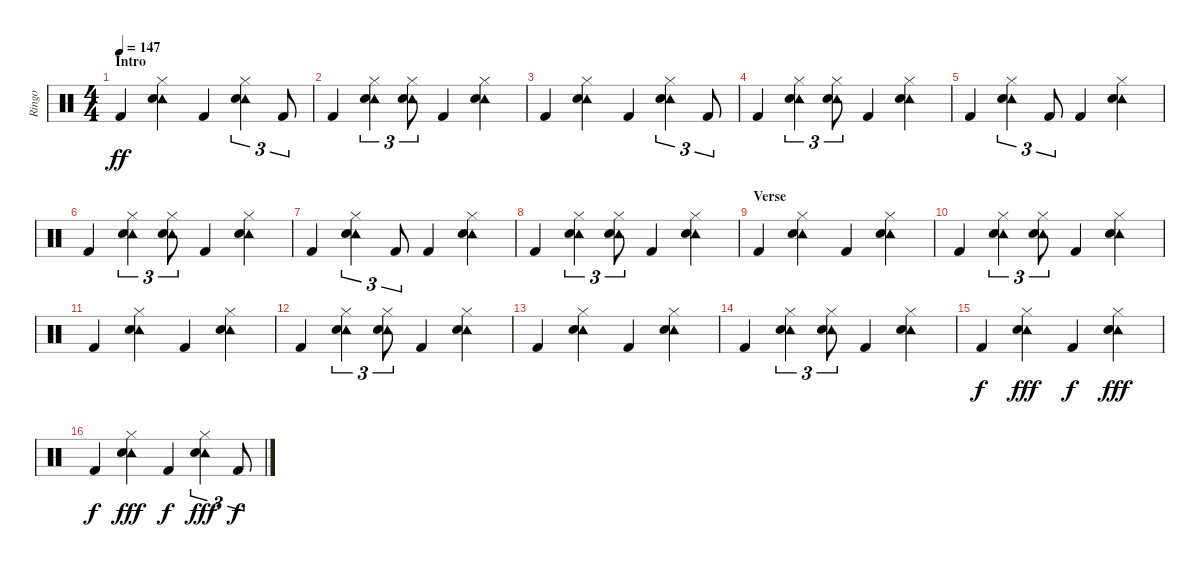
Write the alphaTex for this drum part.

\track ("Ringo" "Ringo") {instrument percussion}
\staff {score}
\articulation defaults
\ts (4 4)
\section ("" "Intro")
\tempo 147
\clef neutral
\ks c "Kick (hit) 2".4{dy ff volume 13}
("Tambourine (hit)" "Hi-Hat (closed)" "Snare (hit) 2").4 "Kick (hit) 2".4 ("Tambourine (hit)" "Hi-Hat (closed)" "Snare (hit) 2").4{tu (3 2)} "Kick (hit) 2".8{tu (3 2)} |
"Kick (hit) 2".4 ("Tambourine (hit)" "Hi-Hat (closed)" "Snare (hit) 2").4{tu (3 2)} ("Tambourine (hit)" "Hi-Hat (closed)" "Snare (hit) 2").8{tu (3 2)} "Kick (hit) 2".4 ("Tambourine (hit)" "Hi-Hat (closed)" "Snare (hit) 2").4 |
"Kick (hit) 2".4 ("Tambourine (hit)" "Hi-Hat (closed)" "Snare (hit) 2").4 "Kick (hit) 2".4 ("Tambourine (hit)" "Hi-Hat (closed)" "Snare (hit) 2").4{tu (3 2)} "Kick (hit) 2".8{tu (3 2)} |
"Kick (hit) 2".4 ("Tambourine (hit)" "Hi-Hat (closed)" "Snare (hit) 2").4{tu (3 2)} ("Tambourine (hit)" "Hi-Hat (closed)" "Snare (hit) 2").8{tu (3 2)} "Kick (hit) 2".4 ("Tambourine (hit)" "Hi-Hat (closed)" "Snare (hit) 2").4 |
"Kick (hit) 2".4 ("Tambourine (hit)" "Hi-Hat (closed)" "Snare (hit) 2").4{tu (3 2)} "Kick (hit) 2".8{tu (3 2)} "Kick (hit) 2".4 ("Tambourine (hit)" "Hi-Hat (closed)" "Snare (hit) 2").4 |
"Kick (hit) 2".4 ("Tambourine (hit)" "Hi-Hat (closed)" "Snare (hit) 2").4{tu (3 2)} ("Tambourine (hit)" "Hi-Hat (closed)" "Snare (hit) 2").8{tu (3 2)} "Kick (hit) 2".4 ("Tambourine (hit)" "Hi-Hat (closed)" "Snare (hit) 2").4 |
"Kick (hit) 2".4 ("Tambourine (hit)" "Hi-Hat (closed)" "Snare (hit) 2").4{tu (3 2)} "Kick (hit) 2".8{tu (3 2)} "Kick (hit) 2".4 ("Tambourine (hit)" "Hi-Hat (closed)" "Snare (hit) 2").4 |
"Kick (hit) 2".4 ("Tambourine (hit)" "Hi-Hat (closed)" "Snare (hit) 2").4{tu (3 2)} ("Tambourine (hit)" "Hi-Hat (closed)" "Snare (hit) 2").8{tu (3 2)} "Kick (hit) 2".4 ("Tambourine (hit)" "Hi-Hat (closed)" "Snare (hit) 2").4 |
\section ("" "Verse")
"Kick (hit) 2".4 ("Tambourine (hit)" "Hi-Hat (closed)" "Snare (hit) 2").4 "Kick (hit) 2".4 ("Tambourine (hit)" "Hi-Hat (closed)" "Snare (hit) 2").4 |
"Kick (hit) 2".4 ("Tambourine (hit)" "Hi-Hat (closed)" "Snare (hit) 2").4{tu (3 2)} ("Tambourine (hit)" "Hi-Hat (closed)" "Snare (hit) 2").8{tu (3 2)} "Kick (hit) 2".4 ("Tambourine (hit)" "Hi-Hat (closed)" "Snare (hit) 2").4 |
"Kick (hit) 2".4 ("Tambourine (hit)" "Hi-Hat (closed)" "Snare (hit) 2").4 "Kick (hit) 2".4 ("Tambourine (hit)" "Hi-Hat (closed)" "Snare (hit) 2").4 |
"Kick (hit) 2".4 ("Tambourine (hit)" "Hi-Hat (closed)" "Snare (hit) 2").4{tu (3 2)} ("Tambourine (hit)" "Hi-Hat (closed)" "Snare (hit) 2").8{tu (3 2)} "Kick (hit) 2".4 ("Tambourine (hit)" "Hi-Hat (closed)" "Snare (hit) 2").4 |
"Kick (hit) 2".4 ("Tambourine (hit)" "Hi-Hat (closed)" "Snare (hit) 2").4 "Kick (hit) 2".4 ("Tambourine (hit)" "Hi-Hat (closed)" "Snare (hit) 2").4 |
"Kick (hit) 2".4 ("Tambourine (hit)" "Hi-Hat (closed)" "Snare (hit) 2").4{tu (3 2)} ("Tambourine (hit)" "Hi-Hat (closed)" "Snare (hit) 2").8{tu (3 2)} "Kick (hit) 2".4 ("Tambourine (hit)" "Hi-Hat (closed)" "Snare (hit) 2").4 |
"Kick (hit) 2".4{dy f} ("Tambourine (hit)" "Hi-Hat (closed)" "Snare (hit) 2").4{dy fff} "Kick (hit) 2".4{dy f} ("Tambourine (hit)" "Hi-Hat (closed)" "Snare (hit) 2").4{dy fff} |
"Kick (hit) 2".4{dy f} ("Tambourine (hit)" "Hi-Hat (closed)" "Snare (hit) 2").4{dy fff} "Kick (hit) 2".4{dy f} ("Tambourine (hit)" "Hi-Hat (closed)" "Snare (hit) 2").4{tu (3 2) dy fff} "Kick (hit) 2".8{tu (3 2) dy f}
